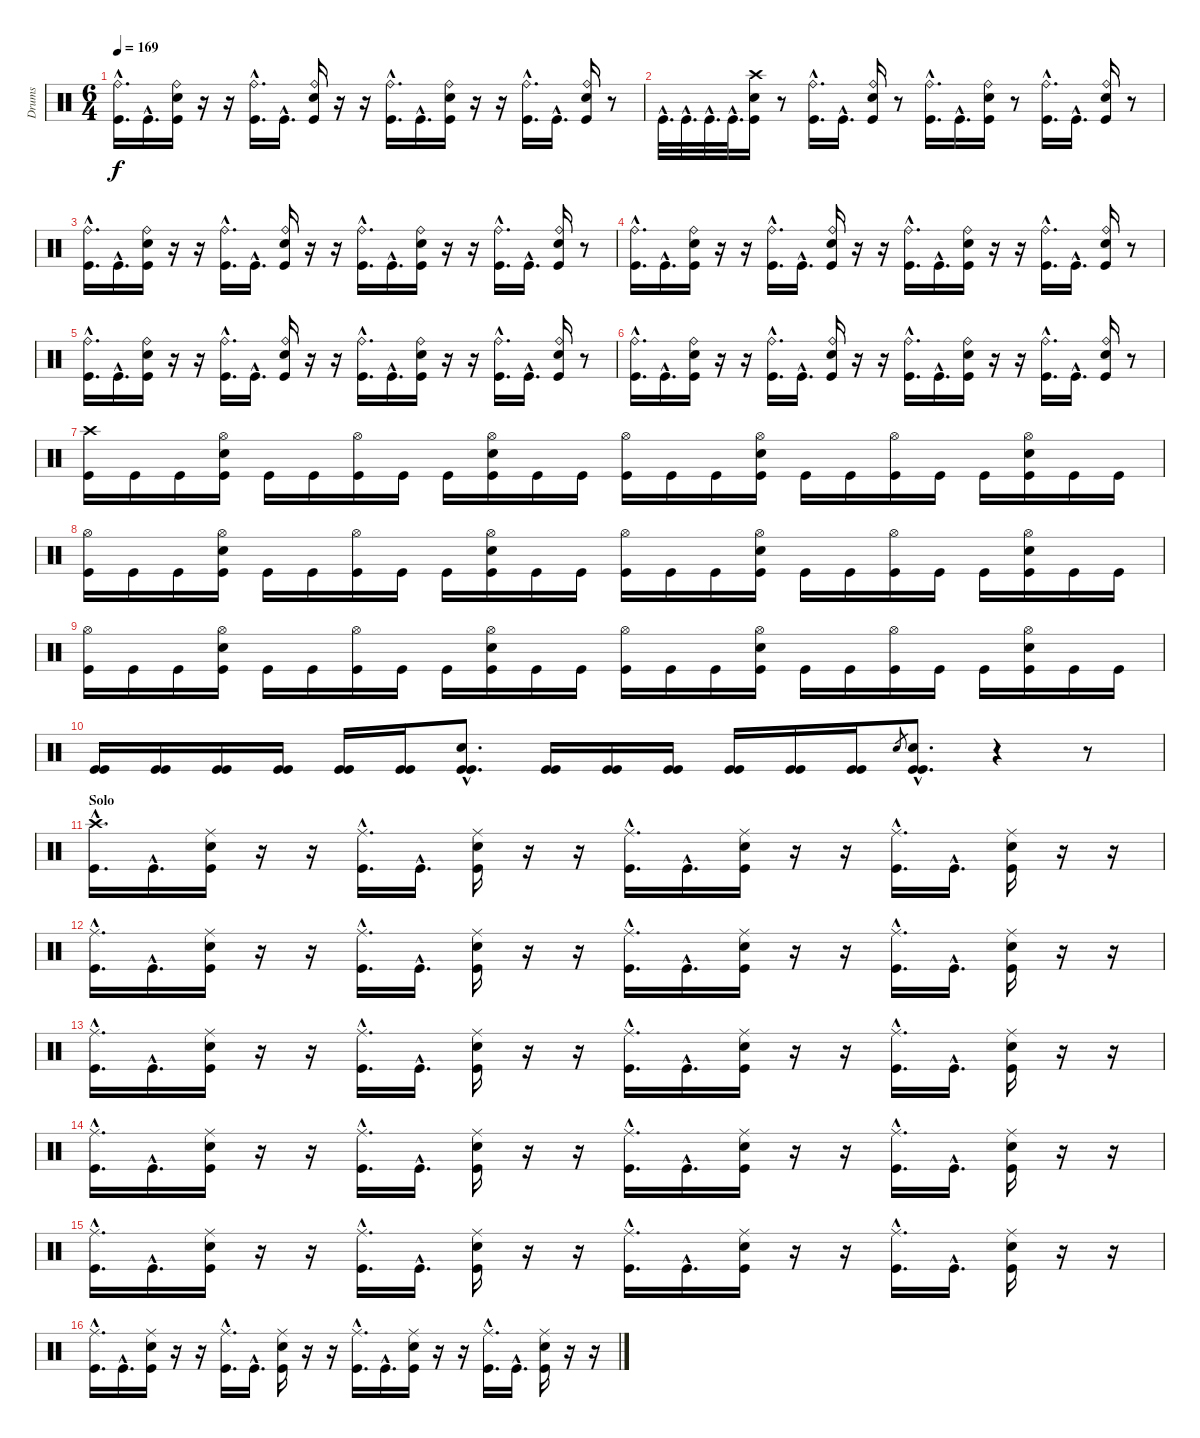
\track ("Drums" "Drums") {instrument percussion}
\staff {score}
\articulation defaults
\ts (6 4)
\tempo 169
\clef neutral
\ks c
("Kick (hit)"{hac} "Ride (bell)"{hac}).16{d dy f} "Kick (hit)"{hac}.16{d} ("Kick (hit)" "Electric Snare (hit)" "Ride (bell)").16 r.16 r.16 ("Kick (hit)"{hac} "Ride (bell)"{hac}).16{d} "Kick (hit)"{hac}.16{d} ("Kick (hit)" "Electric Snare (hit)" "Ride (bell)").16 r.16 r.16 ("Kick (hit)"{hac} "Ride (bell)"{hac}).16{d} "Kick (hit)"{hac}.16{d} ("Kick (hit)" "Electric Snare (hit)" "Ride (bell)").16 r.16 r.16 ("Kick (hit)"{hac} "Ride (bell)"{hac}).16{d} "Kick (hit)"{hac}.16{d} ("Kick (hit)" "Electric Snare (hit)" "Ride (bell)").16 r.8 |
"Kick (hit)"{hac}.32{d} "Kick (hit)"{hac}.32{d} "Kick (hit)"{hac}.32{d} "Kick (hit)"{hac}.32{d} ("Kick (hit)" "Electric Snare (hit)" "Crash high (hit)").16 r.8 ("Kick (hit)"{hac} "Ride (bell)"{hac}).16{d} "Kick (hit)"{hac}.16{d} ("Kick (hit)" "Electric Snare (hit)" "Ride (bell)").16 r.8 ("Kick (hit)"{hac} "Ride (bell)"{hac}).16{d} "Kick (hit)"{hac}.16{d} ("Kick (hit)" "Electric Snare (hit)" "Ride (bell)").16 r.8 ("Kick (hit)"{hac} "Ride (bell)"{hac}).16{d} "Kick (hit)"{hac}.16{d} ("Kick (hit)" "Electric Snare (hit)" "Ride (bell)").16 r.8 |
("Kick (hit)"{hac} "Ride (bell)"{hac}).16{d} "Kick (hit)"{hac}.16{d} ("Kick (hit)" "Electric Snare (hit)" "Ride (bell)").16 r.16 r.16 ("Kick (hit)"{hac} "Ride (bell)"{hac}).16{d} "Kick (hit)"{hac}.16{d} ("Kick (hit)" "Electric Snare (hit)" "Ride (bell)").16 r.16 r.16 ("Kick (hit)"{hac} "Ride (bell)"{hac}).16{d} "Kick (hit)"{hac}.16{d} ("Kick (hit)" "Electric Snare (hit)" "Ride (bell)").16 r.16 r.16 ("Kick (hit)"{hac} "Ride (bell)"{hac}).16{d} "Kick (hit)"{hac}.16{d} ("Kick (hit)" "Electric Snare (hit)" "Ride (bell)").16 r.8 |
("Kick (hit)"{hac} "Ride (bell)"{hac}).16{d} "Kick (hit)"{hac}.16{d} ("Kick (hit)" "Electric Snare (hit)" "Ride (bell)").16 r.16 r.16 ("Kick (hit)"{hac} "Ride (bell)"{hac}).16{d} "Kick (hit)"{hac}.16{d} ("Kick (hit)" "Electric Snare (hit)" "Ride (bell)").16 r.16 r.16 ("Kick (hit)"{hac} "Ride (bell)"{hac}).16{d} "Kick (hit)"{hac}.16{d} ("Kick (hit)" "Electric Snare (hit)" "Ride (bell)").16 r.16 r.16 ("Kick (hit)"{hac} "Ride (bell)"{hac}).16{d} "Kick (hit)"{hac}.16{d} ("Kick (hit)" "Electric Snare (hit)" "Ride (bell)").16 r.8 |
("Kick (hit)"{hac} "Ride (bell)"{hac}).16{d} "Kick (hit)"{hac}.16{d} ("Kick (hit)" "Electric Snare (hit)" "Ride (bell)").16 r.16 r.16 ("Kick (hit)"{hac} "Ride (bell)"{hac}).16{d} "Kick (hit)"{hac}.16{d} ("Kick (hit)" "Electric Snare (hit)" "Ride (bell)").16 r.16 r.16 ("Kick (hit)"{hac} "Ride (bell)"{hac}).16{d} "Kick (hit)"{hac}.16{d} ("Kick (hit)" "Electric Snare (hit)" "Ride (bell)").16 r.16 r.16 ("Kick (hit)"{hac} "Ride (bell)"{hac}).16{d} "Kick (hit)"{hac}.16{d} ("Kick (hit)" "Electric Snare (hit)" "Ride (bell)").16 r.8 |
("Kick (hit)"{hac} "Ride (bell)"{hac}).16{d} "Kick (hit)"{hac}.16{d} ("Kick (hit)" "Electric Snare (hit)" "Ride (bell)").16 r.16 r.16 ("Kick (hit)"{hac} "Ride (bell)"{hac}).16{d} "Kick (hit)"{hac}.16{d} ("Kick (hit)" "Electric Snare (hit)" "Ride (bell)").16 r.16 r.16 ("Kick (hit)"{hac} "Ride (bell)"{hac}).16{d} "Kick (hit)"{hac}.16{d} ("Kick (hit)" "Electric Snare (hit)" "Ride (bell)").16 r.16 r.16 ("Kick (hit)"{hac} "Ride (bell)"{hac}).16{d} "Kick (hit)"{hac}.16{d} ("Kick (hit)" "Electric Snare (hit)" "Ride (bell)").16 r.8 |
("Kick (hit)" "Crash high (hit)").16 "Kick (hit)".16 "Kick (hit)".16 ("Kick (hit)" "Electric Snare (hit)" "Hi-Hat (open)").16 "Kick (hit)".16 "Kick (hit)".16 ("Kick (hit)" "Hi-Hat (open)").16 "Kick (hit)".16 "Kick (hit)".16 ("Kick (hit)" "Electric Snare (hit)" "Hi-Hat (open)").16 "Kick (hit)".16 "Kick (hit)".16 ("Kick (hit)" "Hi-Hat (open)").16 "Kick (hit)".16 "Kick (hit)".16 ("Kick (hit)" "Electric Snare (hit)" "Hi-Hat (open)").16 "Kick (hit)".16 "Kick (hit)".16 ("Kick (hit)" "Hi-Hat (open)").16 "Kick (hit)".16 "Kick (hit)".16 ("Kick (hit)" "Electric Snare (hit)" "Hi-Hat (open)").16 "Kick (hit)".16 "Kick (hit)".16 |
("Kick (hit)" "Hi-Hat (open)").16 "Kick (hit)".16 "Kick (hit)".16 ("Kick (hit)" "Electric Snare (hit)" "Hi-Hat (open)").16 "Kick (hit)".16 "Kick (hit)".16 ("Kick (hit)" "Hi-Hat (open)").16 "Kick (hit)".16 "Kick (hit)".16 ("Kick (hit)" "Electric Snare (hit)" "Hi-Hat (open)").16 "Kick (hit)".16 "Kick (hit)".16 ("Kick (hit)" "Hi-Hat (open)").16 "Kick (hit)".16 "Kick (hit)".16 ("Kick (hit)" "Electric Snare (hit)" "Hi-Hat (open)").16 "Kick (hit)".16 "Kick (hit)".16 ("Kick (hit)" "Hi-Hat (open)").16 "Kick (hit)".16 "Kick (hit)".16 ("Kick (hit)" "Electric Snare (hit)" "Hi-Hat (open)").16 "Kick (hit)".16 "Kick (hit)".16 |
("Kick (hit)" "Hi-Hat (open)").16 "Kick (hit)".16 "Kick (hit)".16 ("Kick (hit)" "Electric Snare (hit)" "Hi-Hat (open)").16 "Kick (hit)".16 "Kick (hit)".16 ("Kick (hit)" "Hi-Hat (open)").16 "Kick (hit)".16 "Kick (hit)".16 ("Kick (hit)" "Electric Snare (hit)" "Hi-Hat (open)").16 "Kick (hit)".16 "Kick (hit)".16 ("Kick (hit)" "Hi-Hat (open)").16 "Kick (hit)".16 "Kick (hit)".16 ("Kick (hit)" "Electric Snare (hit)" "Hi-Hat (open)").16 "Kick (hit)".16 "Kick (hit)".16 ("Kick (hit)" "Hi-Hat (open)").16 "Kick (hit)".16 "Kick (hit)".16 ("Kick (hit)" "Electric Snare (hit)" "Hi-Hat (open)").16 "Kick (hit)".16 "Kick (hit)".16 |
("Kick (hit)" "Kick (hit)").16 ("Kick (hit)" "Kick (hit)").16 ("Kick (hit)" "Kick (hit)").16 ("Kick (hit)" "Kick (hit)").16 ("Kick (hit)" "Kick (hit)").16 ("Kick (hit)" "Kick (hit)").16 ("Kick (hit)"{hac} "Kick (hit)"{hac} "Electric Snare (hit)"{hac}).8{d} ("Kick (hit)" "Kick (hit)").16 ("Kick (hit)" "Kick (hit)").16 ("Kick (hit)" "Kick (hit)").16 ("Kick (hit)" "Kick (hit)").16 ("Kick (hit)" "Kick (hit)").16 ("Kick (hit)" "Kick (hit)").16 "Electric Snare (hit)".8{gr} ("Kick (hit)"{hac} "Kick (hit)"{hac} "Electric Snare (hit)"{hac}).8{d} r.4 r.8 |
\section ("" "Solo")
("Kick (hit)"{hac} "Crash high (hit)"{hac}).16{d} "Kick (hit)"{hac}.16{d} ("Kick (hit)" "Electric Snare (hit)" "Ride (middle)").16 r.16 r.16 ("Kick (hit)"{hac} "Ride (middle)"{hac}).16{d} "Kick (hit)"{hac}.16{d} ("Kick (hit)" "Electric Snare (hit)" "Ride (middle)").16 r.16 r.16 ("Kick (hit)"{hac} "Ride (middle)"{hac}).16{d} "Kick (hit)"{hac}.16{d} ("Kick (hit)" "Electric Snare (hit)" "Ride (middle)").16 r.16 r.16 ("Kick (hit)"{hac} "Ride (middle)"{hac}).16{d} "Kick (hit)"{hac}.16{d} ("Kick (hit)" "Electric Snare (hit)" "Ride (middle)").16 r.16 r.16 |
("Kick (hit)"{hac} "Ride (middle)"{hac}).16{d} "Kick (hit)"{hac}.16{d} ("Kick (hit)" "Electric Snare (hit)" "Ride (middle)").16 r.16 r.16 ("Kick (hit)"{hac} "Ride (middle)"{hac}).16{d} "Kick (hit)"{hac}.16{d} ("Kick (hit)" "Electric Snare (hit)" "Ride (middle)").16 r.16 r.16 ("Kick (hit)"{hac} "Ride (middle)"{hac}).16{d} "Kick (hit)"{hac}.16{d} ("Kick (hit)" "Electric Snare (hit)" "Ride (middle)").16 r.16 r.16 ("Kick (hit)"{hac} "Ride (middle)"{hac}).16{d} "Kick (hit)"{hac}.16{d} ("Kick (hit)" "Electric Snare (hit)" "Ride (middle)").16 r.16 r.16 |
("Kick (hit)"{hac} "Ride (middle)"{hac}).16{d} "Kick (hit)"{hac}.16{d} ("Kick (hit)" "Electric Snare (hit)" "Ride (middle)").16 r.16 r.16 ("Kick (hit)"{hac} "Ride (middle)"{hac}).16{d} "Kick (hit)"{hac}.16{d} ("Kick (hit)" "Electric Snare (hit)" "Ride (middle)").16 r.16 r.16 ("Kick (hit)"{hac} "Ride (middle)"{hac}).16{d} "Kick (hit)"{hac}.16{d} ("Kick (hit)" "Electric Snare (hit)" "Ride (middle)").16 r.16 r.16 ("Kick (hit)"{hac} "Ride (middle)"{hac}).16{d} "Kick (hit)"{hac}.16{d} ("Kick (hit)" "Electric Snare (hit)" "Ride (middle)").16 r.16 r.16 |
("Kick (hit)"{hac} "Ride (middle)"{hac}).16{d} "Kick (hit)"{hac}.16{d} ("Kick (hit)" "Electric Snare (hit)" "Ride (middle)").16 r.16 r.16 ("Kick (hit)"{hac} "Ride (middle)"{hac}).16{d} "Kick (hit)"{hac}.16{d} ("Kick (hit)" "Electric Snare (hit)" "Ride (middle)").16 r.16 r.16 ("Kick (hit)"{hac} "Ride (middle)"{hac}).16{d} "Kick (hit)"{hac}.16{d} ("Kick (hit)" "Electric Snare (hit)" "Ride (middle)").16 r.16 r.16 ("Kick (hit)"{hac} "Ride (middle)"{hac}).16{d} "Kick (hit)"{hac}.16{d} ("Kick (hit)" "Electric Snare (hit)" "Ride (middle)").16 r.16 r.16 |
("Kick (hit)"{hac} "Ride (middle)"{hac}).16{d} "Kick (hit)"{hac}.16{d} ("Kick (hit)" "Electric Snare (hit)" "Ride (middle)").16 r.16 r.16 ("Kick (hit)"{hac} "Ride (middle)"{hac}).16{d} "Kick (hit)"{hac}.16{d} ("Kick (hit)" "Electric Snare (hit)" "Ride (middle)").16 r.16 r.16 ("Kick (hit)"{hac} "Ride (middle)"{hac}).16{d} "Kick (hit)"{hac}.16{d} ("Kick (hit)" "Electric Snare (hit)" "Ride (middle)").16 r.16 r.16 ("Kick (hit)"{hac} "Ride (middle)"{hac}).16{d} "Kick (hit)"{hac}.16{d} ("Kick (hit)" "Electric Snare (hit)" "Ride (middle)").16 r.16 r.16 |
("Kick (hit)"{hac} "Ride (middle)"{hac}).16{d} "Kick (hit)"{hac}.16{d} ("Kick (hit)" "Electric Snare (hit)" "Ride (middle)").16 r.16 r.16 ("Kick (hit)"{hac} "Ride (middle)"{hac}).16{d} "Kick (hit)"{hac}.16{d} ("Kick (hit)" "Electric Snare (hit)" "Ride (middle)").16 r.16 r.16 ("Kick (hit)"{hac} "Ride (middle)"{hac}).16{d} "Kick (hit)"{hac}.16{d} ("Kick (hit)" "Electric Snare (hit)" "Ride (middle)").16 r.16 r.16 ("Kick (hit)"{hac} "Ride (middle)"{hac}).16{d} "Kick (hit)"{hac}.16{d} ("Kick (hit)" "Electric Snare (hit)" "Ride (middle)").16 r.16 r.16
